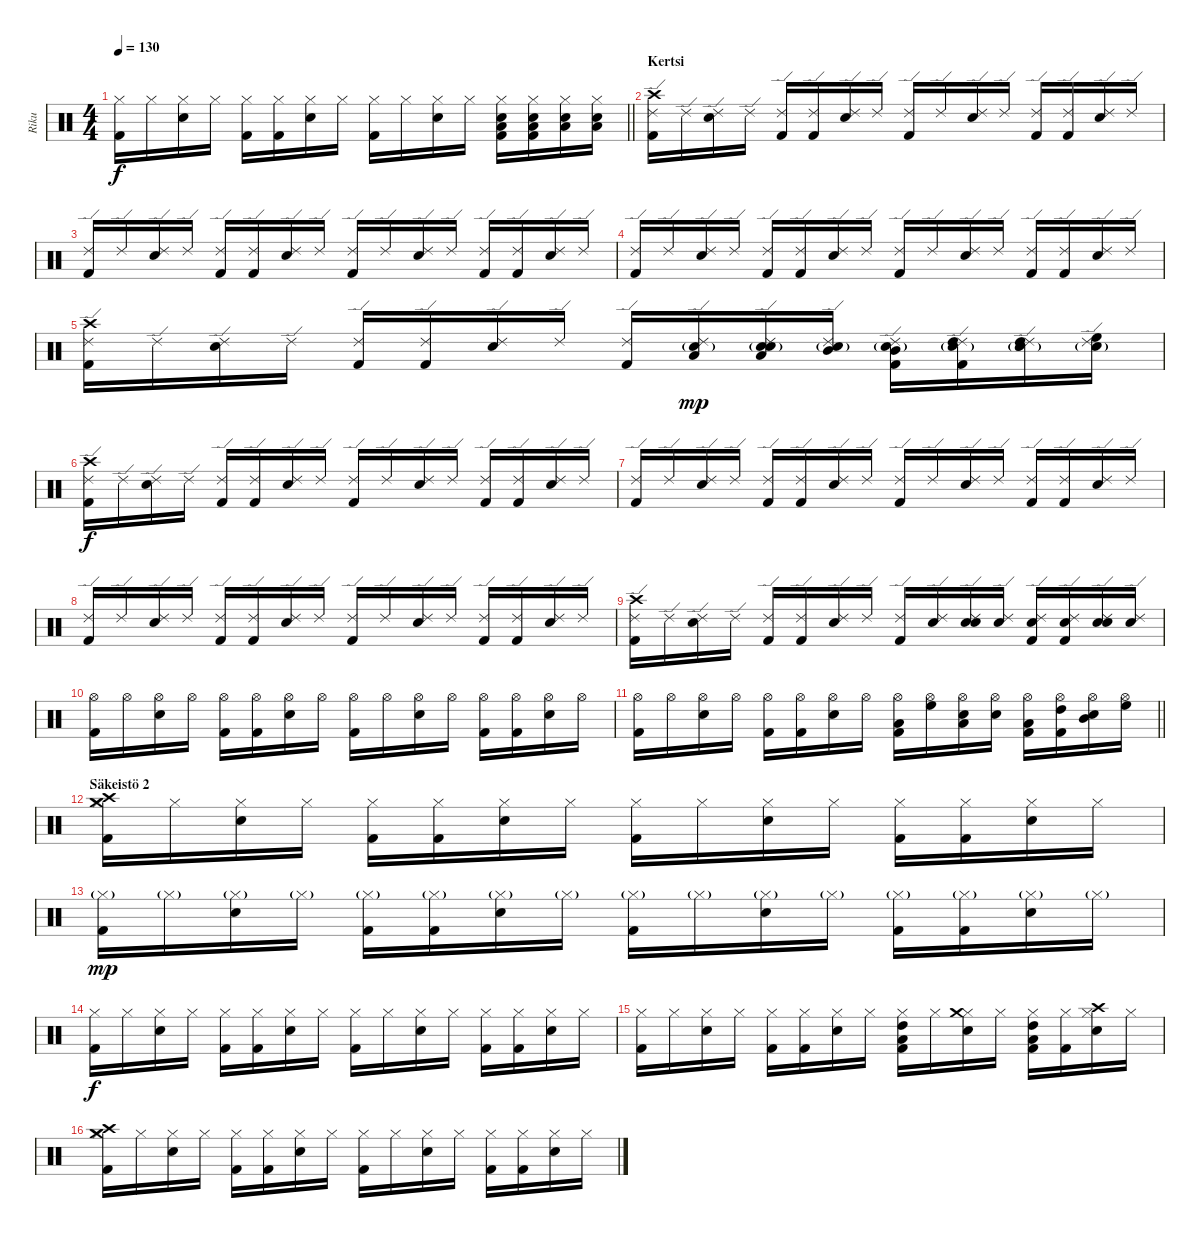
\track ("Riku" "Riku") {instrument percussion}
\staff {score}
\articulation defaults
\ts (4 4)
\tempo 130
\clef neutral
\barLineRight lightlight
\ks c
("Hi-Hat (closed)" "Kick (hit) 2").16{dy f} "Hi-Hat (closed)".16 ("Hi-Hat (closed)" "Snare (hit) 2").16 "Hi-Hat (closed)".16 ("Hi-Hat (closed)" "Kick (hit) 2").16 ("Hi-Hat (closed)" "Kick (hit) 2").16 ("Hi-Hat (closed)" "Snare (hit) 2").16 "Hi-Hat (closed)".16 ("Hi-Hat (closed)" "Kick (hit) 2").16 "Hi-Hat (closed)".16 ("Hi-Hat (closed)" "Snare (hit) 2").16 "Hi-Hat (closed)".16 ("Hi-Hat (closed)" "Kick (hit) 2" "Snare (hit) 2" "Low Tom (hit)").16 ("Hi-Hat (closed)" "Kick (hit) 2" "Snare (hit) 2" "Low Tom (hit)").16 ("Hi-Hat (closed)" "Snare (hit) 2" "Low Tom (hit)").16 ("Hi-Hat (closed)" "Snare (hit) 2" "Low Tom (hit)").16 |
\section ("" "Kertsi")
("Ride (edge) 2" "Kick (hit) 2" "Crash high (hit)").16 "Ride (edge) 2".16 ("Ride (edge) 2" "Snare (hit) 2").16 "Ride (edge) 2".16 ("Ride (edge) 2" "Kick (hit) 2").16 ("Ride (edge) 2" "Kick (hit) 2").16 ("Ride (edge) 2" "Snare (hit) 2").16 "Ride (edge) 2".16 ("Ride (edge) 2" "Kick (hit) 2").16 "Ride (edge) 2".16 ("Ride (edge) 2" "Snare (hit) 2").16 "Ride (edge) 2".16 ("Ride (edge) 2" "Kick (hit) 2").16 ("Ride (edge) 2" "Kick (hit) 2").16 ("Ride (edge) 2" "Snare (hit) 2").16 "Ride (edge) 2".16 |
("Ride (edge) 2" "Kick (hit) 2").16 "Ride (edge) 2".16 ("Ride (edge) 2" "Snare (hit) 2").16 "Ride (edge) 2".16 ("Ride (edge) 2" "Kick (hit) 2").16 ("Ride (edge) 2" "Kick (hit) 2").16 ("Ride (edge) 2" "Snare (hit) 2").16 "Ride (edge) 2".16 ("Ride (edge) 2" "Kick (hit) 2").16 "Ride (edge) 2".16 ("Ride (edge) 2" "Snare (hit) 2").16 "Ride (edge) 2".16 ("Ride (edge) 2" "Kick (hit) 2").16 ("Ride (edge) 2" "Kick (hit) 2").16 ("Ride (edge) 2" "Snare (hit) 2").16 "Ride (edge) 2".16 |
("Ride (edge) 2" "Kick (hit) 2").16 "Ride (edge) 2".16 ("Ride (edge) 2" "Snare (hit) 2").16 "Ride (edge) 2".16 ("Ride (edge) 2" "Kick (hit) 2").16 ("Ride (edge) 2" "Kick (hit) 2").16 ("Ride (edge) 2" "Snare (hit) 2").16 "Ride (edge) 2".16 ("Ride (edge) 2" "Kick (hit) 2").16 "Ride (edge) 2".16 ("Ride (edge) 2" "Snare (hit) 2").16 "Ride (edge) 2".16 ("Ride (edge) 2" "Kick (hit) 2").16 ("Ride (edge) 2" "Kick (hit) 2").16 ("Ride (edge) 2" "Snare (hit) 2").16 "Ride (edge) 2".16 |
("Ride (edge) 2" "Kick (hit) 2" "Crash high (hit)").16 "Ride (edge) 2".16 ("Ride (edge) 2" "Snare (hit) 2").16 "Ride (edge) 2".16 ("Ride (edge) 2" "Kick (hit) 2").16 ("Ride (edge) 2" "Kick (hit) 2").16 ("Ride (edge) 2" "Snare (hit) 2").16 "Ride (edge) 2".16 ("Ride (edge) 2" "Kick (hit) 2").16 ("Ride (edge) 2" "Low Tom (hit)" "Snare (hit) 2"{g}).16{dy mp} ("Ride (edge) 2" "Snare (hit) 2" "Low Tom (hit)" "Snare (hit) 2"{g}).16 ("Ride (edge) 2" "Mid Tom (hit)" "Snare (hit) 2"{g}).16 ("Ride (edge) 2" "Kick (hit) 2" "Mid Tom (hit)" "Snare (hit) 2"{g}).16 ("Ride (edge) 2" "Kick (hit) 2" "High Tom (hit)" "Snare (hit) 2"{g}).16 ("Ride (edge) 2" "Snare (hit) 2" "High Tom (hit)" "Snare (hit) 2"{g}).16 ("Ride (edge) 2" "High Floor Tom (hit)" "Snare (hit) 2"{g}).16 |
("Ride (edge) 2" "Kick (hit) 2" "Crash high (hit)").16{dy f} "Ride (edge) 2".16 ("Ride (edge) 2" "Snare (hit) 2").16 "Ride (edge) 2".16 ("Ride (edge) 2" "Kick (hit) 2").16 ("Ride (edge) 2" "Kick (hit) 2").16 ("Ride (edge) 2" "Snare (hit) 2").16 "Ride (edge) 2".16 ("Ride (edge) 2" "Kick (hit) 2").16 "Ride (edge) 2".16 ("Ride (edge) 2" "Snare (hit) 2").16 "Ride (edge) 2".16 ("Ride (edge) 2" "Kick (hit) 2").16 ("Ride (edge) 2" "Kick (hit) 2").16 ("Ride (edge) 2" "Snare (hit) 2").16 "Ride (edge) 2".16 |
("Ride (edge) 2" "Kick (hit) 2").16 "Ride (edge) 2".16 ("Ride (edge) 2" "Snare (hit) 2").16 "Ride (edge) 2".16 ("Ride (edge) 2" "Kick (hit) 2").16 ("Ride (edge) 2" "Kick (hit) 2").16 ("Ride (edge) 2" "Snare (hit) 2").16 "Ride (edge) 2".16 ("Ride (edge) 2" "Kick (hit) 2").16 "Ride (edge) 2".16 ("Ride (edge) 2" "Snare (hit) 2").16 "Ride (edge) 2".16 ("Ride (edge) 2" "Kick (hit) 2").16 ("Ride (edge) 2" "Kick (hit) 2").16 ("Ride (edge) 2" "Snare (hit) 2").16 "Ride (edge) 2".16 |
("Ride (edge) 2" "Kick (hit) 2").16 "Ride (edge) 2".16 ("Ride (edge) 2" "Snare (hit) 2").16 "Ride (edge) 2".16 ("Ride (edge) 2" "Kick (hit) 2").16 ("Ride (edge) 2" "Kick (hit) 2").16 ("Ride (edge) 2" "Snare (hit) 2").16 "Ride (edge) 2".16 ("Ride (edge) 2" "Kick (hit) 2").16 "Ride (edge) 2".16 ("Ride (edge) 2" "Snare (hit) 2").16 "Ride (edge) 2".16 ("Ride (edge) 2" "Kick (hit) 2").16 ("Ride (edge) 2" "Kick (hit) 2").16 ("Ride (edge) 2" "Snare (hit) 2").16 "Ride (edge) 2".16 |
("Ride (edge) 2" "Kick (hit) 2" "Crash high (hit)").16 "Ride (edge) 2".16 ("Ride (edge) 2" "Snare (hit) 2").16 "Ride (edge) 2".16 ("Ride (edge) 2" "Kick (hit) 2").16 ("Ride (edge) 2" "Kick (hit) 2").16 ("Ride (edge) 2" "Snare (hit) 2").16 "Ride (edge) 2".16 ("Ride (edge) 2" "Kick (hit) 2").16 ("Ride (edge) 2" "Snare (hit) 2").16 ("Ride (edge) 2" "Snare (hit) 2" "Snare (hit) 2").16 ("Ride (edge) 2" "Snare (hit) 2").16 ("Ride (edge) 2" "Kick (hit) 2" "Snare (hit) 2").16 ("Ride (edge) 2" "Kick (hit) 2" "Snare (hit) 2").16 ("Ride (edge) 2" "Snare (hit) 2" "Snare (hit) 2").16 ("Ride (edge) 2" "Snare (hit) 2").16 |
("Hi-Hat (open)" "Kick (hit) 2").16 "Hi-Hat (open)".16 ("Hi-Hat (open)" "Snare (hit) 2").16 "Hi-Hat (open)".16 ("Hi-Hat (open)" "Kick (hit) 2").16 ("Hi-Hat (open)" "Kick (hit) 2").16 ("Hi-Hat (open)" "Snare (hit) 2").16 "Hi-Hat (open)".16 ("Hi-Hat (open)" "Kick (hit) 2").16 "Hi-Hat (open)".16 ("Hi-Hat (open)" "Snare (hit) 2").16 "Hi-Hat (open)".16 ("Hi-Hat (open)" "Kick (hit) 2").16 ("Hi-Hat (open)" "Kick (hit) 2").16 ("Hi-Hat (open)" "Snare (hit) 2").16 "Hi-Hat (open)".16 |
\barLineRight lightlight
("Hi-Hat (open)" "Kick (hit) 2").16 "Hi-Hat (open)".16 ("Hi-Hat (open)" "Snare (hit) 2").16 "Hi-Hat (open)".16 ("Hi-Hat (open)" "Kick (hit) 2").16 ("Hi-Hat (open)" "Kick (hit) 2").16 ("Hi-Hat (open)" "Snare (hit) 2").16 "Hi-Hat (open)".16 ("Hi-Hat (open)" "Kick (hit) 2" "Low Tom (hit)").16 ("Hi-Hat (open)" "High Floor Tom (hit)").16 ("Hi-Hat (open)" "Snare (hit) 2" "Low Tom (hit)").16 ("Hi-Hat (open)" "Snare (hit) 2").16 ("Hi-Hat (open)" "Kick (hit) 2" "Low Tom (hit)").16 ("Hi-Hat (open)" "Kick (hit) 2" "High Tom (hit)").16 ("Hi-Hat (open)" "Snare (hit) 2" "Mid Tom (hit)").16 ("Hi-Hat (open)" "High Floor Tom (hit)").16 |
\section ("" "Säkeistö 2")
("Hi-Hat (closed)" "Kick (hit) 2" "Crash high (hit)" "Crash medium (hit)").16 "Hi-Hat (closed)".16 ("Hi-Hat (closed)" "Snare (hit) 2").16 "Hi-Hat (closed)".16 ("Hi-Hat (closed)" "Kick (hit) 2").16 ("Hi-Hat (closed)" "Kick (hit) 2").16 ("Hi-Hat (closed)" "Snare (hit) 2").16 "Hi-Hat (closed)".16 ("Hi-Hat (closed)" "Kick (hit) 2").16 "Hi-Hat (closed)".16 ("Hi-Hat (closed)" "Snare (hit) 2").16 "Hi-Hat (closed)".16 ("Hi-Hat (closed)" "Kick (hit) 2").16 ("Hi-Hat (closed)" "Kick (hit) 2").16 ("Hi-Hat (closed)" "Snare (hit) 2").16 "Hi-Hat (closed)".16 |
("Hi-Hat (closed)"{g} "Kick (hit) 2").16{dy mp} "Hi-Hat (closed)"{g}.16 ("Hi-Hat (closed)"{g} "Snare (hit) 2").16 "Hi-Hat (closed)"{g}.16 ("Hi-Hat (closed)"{g} "Kick (hit) 2").16 ("Hi-Hat (closed)"{g} "Kick (hit) 2").16 ("Hi-Hat (closed)"{g} "Snare (hit) 2").16 "Hi-Hat (closed)"{g}.16 ("Hi-Hat (closed)"{g} "Kick (hit) 2").16 "Hi-Hat (closed)"{g}.16 ("Hi-Hat (closed)"{g} "Snare (hit) 2").16 "Hi-Hat (closed)"{g}.16 ("Hi-Hat (closed)"{g} "Kick (hit) 2").16 ("Hi-Hat (closed)"{g} "Kick (hit) 2").16 ("Hi-Hat (closed)"{g} "Snare (hit) 2").16 "Hi-Hat (closed)"{g}.16 |
("Hi-Hat (closed)" "Kick (hit) 2").16{dy f} "Hi-Hat (closed)".16 ("Hi-Hat (closed)" "Snare (hit) 2").16 "Hi-Hat (closed)".16 ("Hi-Hat (closed)" "Kick (hit) 2").16 ("Hi-Hat (closed)" "Kick (hit) 2").16 ("Hi-Hat (closed)" "Snare (hit) 2").16 "Hi-Hat (closed)".16 ("Hi-Hat (closed)" "Kick (hit) 2").16 "Hi-Hat (closed)".16 ("Hi-Hat (closed)" "Snare (hit) 2").16 "Hi-Hat (closed)".16 ("Hi-Hat (closed)" "Kick (hit) 2").16 ("Hi-Hat (closed)" "Kick (hit) 2").16 ("Hi-Hat (closed)" "Snare (hit) 2").16 "Hi-Hat (closed)".16 |
("Hi-Hat (closed)" "Kick (hit) 2").16 "Hi-Hat (closed)".16 ("Hi-Hat (closed)" "Snare (hit) 2").16 "Hi-Hat (closed)".16 ("Hi-Hat (closed)" "Kick (hit) 2").16 ("Hi-Hat (closed)" "Kick (hit) 2").16 ("Hi-Hat (closed)" "Snare (hit) 2").16 "Hi-Hat (closed)".16 ("Hi-Hat (closed)" "Kick (hit) 2" "Low Tom (hit)" "High Tom (hit)").16 "Hi-Hat (closed)".16 ("Hi-Hat (closed)" "Snare (hit) 2" "Crash medium (hit)").16 "Hi-Hat (closed)".16 ("Hi-Hat (closed)" "Kick (hit) 2" "Low Tom (hit)" "High Tom (hit)").16 ("Hi-Hat (closed)" "Kick (hit) 2").16 ("Hi-Hat (closed)" "Snare (hit) 2" "Crash high (hit)").16 "Hi-Hat (closed)".16 |
("Hi-Hat (closed)" "Kick (hit) 2" "Crash high (hit)" "Crash medium (hit)").16 "Hi-Hat (closed)".16 ("Hi-Hat (closed)" "Snare (hit) 2").16 "Hi-Hat (closed)".16 ("Hi-Hat (closed)" "Kick (hit) 2").16 ("Hi-Hat (closed)" "Kick (hit) 2").16 ("Hi-Hat (closed)" "Snare (hit) 2").16 "Hi-Hat (closed)".16 ("Hi-Hat (closed)" "Kick (hit) 2").16 "Hi-Hat (closed)".16 ("Hi-Hat (closed)" "Snare (hit) 2").16 "Hi-Hat (closed)".16 ("Hi-Hat (closed)" "Kick (hit) 2").16 ("Hi-Hat (closed)" "Kick (hit) 2").16 ("Hi-Hat (closed)" "Snare (hit) 2").16 "Hi-Hat (closed)".16
